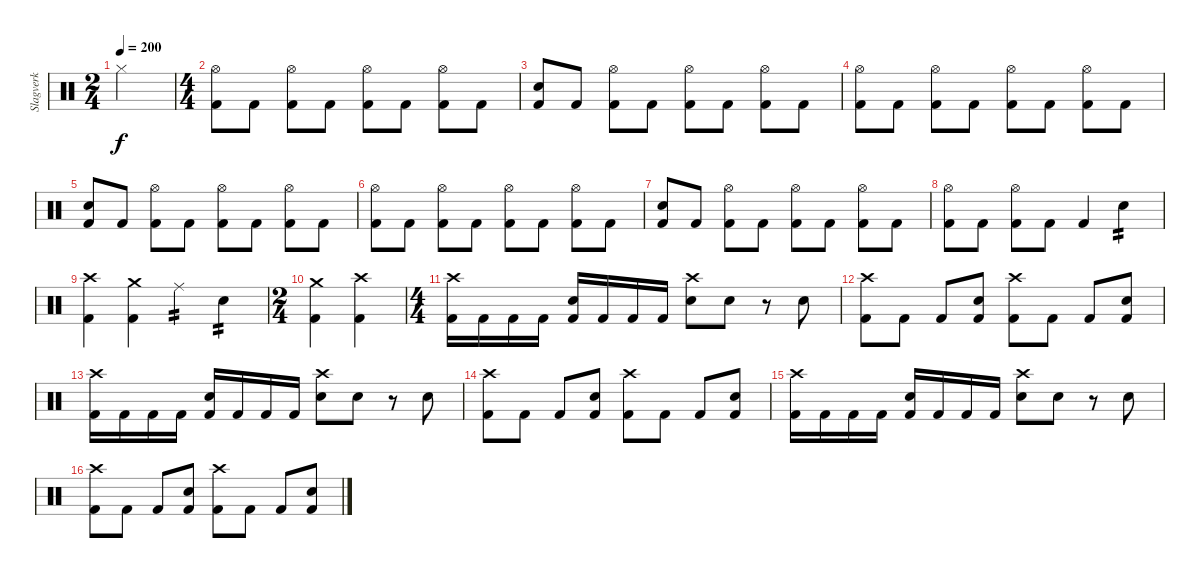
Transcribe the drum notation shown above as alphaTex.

\track ("Slagverk" "Slagverk") {instrument percussion}
\staff {score}
\articulation defaults
\ts (2 4)
\tempo 200
\clef neutral
\ks c "Hi-Hat (closed)".2{dy f}
|
\ts (4 4)
("Kick (hit) 2" "Hi-Hat (open)").8 "Kick (hit) 2".8 ("Kick (hit) 2" "Hi-Hat (open)").8 "Kick (hit) 2".8 ("Kick (hit) 2" "Hi-Hat (open)").8 "Kick (hit) 2".8 ("Kick (hit) 2" "Hi-Hat (open)").8 "Kick (hit) 2".8 |
("Kick (hit) 2" "Snare (hit) 2").8 "Kick (hit) 2".8 ("Kick (hit) 2" "Hi-Hat (open)").8 "Kick (hit) 2".8 ("Kick (hit) 2" "Hi-Hat (open)").8 "Kick (hit) 2".8 ("Kick (hit) 2" "Hi-Hat (open)").8 "Kick (hit) 2".8 |
("Kick (hit) 2" "Hi-Hat (open)").8 "Kick (hit) 2".8 ("Kick (hit) 2" "Hi-Hat (open)").8 "Kick (hit) 2".8 ("Kick (hit) 2" "Hi-Hat (open)").8 "Kick (hit) 2".8 ("Kick (hit) 2" "Hi-Hat (open)").8 "Kick (hit) 2".8 |
("Kick (hit) 2" "Snare (hit) 2").8 "Kick (hit) 2".8 ("Kick (hit) 2" "Hi-Hat (open)").8 "Kick (hit) 2".8 ("Kick (hit) 2" "Hi-Hat (open)").8 "Kick (hit) 2".8 ("Kick (hit) 2" "Hi-Hat (open)").8 "Kick (hit) 2".8 |
("Kick (hit) 2" "Hi-Hat (open)").8 "Kick (hit) 2".8 ("Kick (hit) 2" "Hi-Hat (open)").8 "Kick (hit) 2".8 ("Kick (hit) 2" "Hi-Hat (open)").8 "Kick (hit) 2".8 ("Kick (hit) 2" "Hi-Hat (open)").8 "Kick (hit) 2".8 |
("Kick (hit) 2" "Snare (hit) 2").8 "Kick (hit) 2".8 ("Kick (hit) 2" "Hi-Hat (open)").8 "Kick (hit) 2".8 ("Kick (hit) 2" "Hi-Hat (open)").8 "Kick (hit) 2".8 ("Kick (hit) 2" "Hi-Hat (open)").8 "Kick (hit) 2".8 |
("Kick (hit) 2" "Hi-Hat (open)").8 "Kick (hit) 2".8 ("Kick (hit) 2" "Hi-Hat (open)").8 "Kick (hit) 2".8 "Kick (hit) 2".4 "Snare (hit) 2".4{tp 2} |
("Kick (hit) 2" "Crash high (hit)").4 ("Kick (hit) 2" "Crash medium (hit)").4 "Ride (middle)".4{tp 2} "Snare (hit) 2".4{tp 2} |
\ts (2 4)
("Kick (hit) 2" "Crash medium (hit)").4 ("Kick (hit) 2" "Crash high (hit)").4 |
\ts (4 4)
("Crash high (hit)" "Kick (hit) 2").16 "Kick (hit) 2".16 "Kick (hit) 2".16 "Kick (hit) 2".16 ("Snare (hit) 2" "Kick (hit) 2").16 "Kick (hit) 2".16 "Kick (hit) 2".16 "Kick (hit) 2".16 ("Snare (hit) 2" "Crash high (hit)").8 "Snare (hit) 2".8 r.8 "Snare (hit) 2".8 |
("Kick (hit) 2" "Crash high (hit)").8 "Kick (hit) 2".8 "Kick (hit) 2".8 ("Kick (hit) 2" "Snare (hit) 2").8 ("Kick (hit) 2" "Crash high (hit)").8 "Kick (hit) 2".8 "Kick (hit) 2".8 ("Kick (hit) 2" "Snare (hit) 2").8 |
("Crash high (hit)" "Kick (hit) 2").16 "Kick (hit) 2".16 "Kick (hit) 2".16 "Kick (hit) 2".16 ("Snare (hit) 2" "Kick (hit) 2").16 "Kick (hit) 2".16 "Kick (hit) 2".16 "Kick (hit) 2".16 ("Snare (hit) 2" "Crash high (hit)").8 "Snare (hit) 2".8 r.8 "Snare (hit) 2".8 |
("Kick (hit) 2" "Crash high (hit)").8 "Kick (hit) 2".8 "Kick (hit) 2".8 ("Kick (hit) 2" "Snare (hit) 2").8 ("Kick (hit) 2" "Crash high (hit)").8 "Kick (hit) 2".8 "Kick (hit) 2".8 ("Kick (hit) 2" "Snare (hit) 2").8 |
("Crash high (hit)" "Kick (hit) 2").16 "Kick (hit) 2".16 "Kick (hit) 2".16 "Kick (hit) 2".16 ("Snare (hit) 2" "Kick (hit) 2").16 "Kick (hit) 2".16 "Kick (hit) 2".16 "Kick (hit) 2".16 ("Snare (hit) 2" "Crash high (hit)").8 "Snare (hit) 2".8 r.8 "Snare (hit) 2".8 |
("Kick (hit) 2" "Crash high (hit)").8 "Kick (hit) 2".8 "Kick (hit) 2".8 ("Kick (hit) 2" "Snare (hit) 2").8 ("Kick (hit) 2" "Crash high (hit)").8 "Kick (hit) 2".8 "Kick (hit) 2".8 ("Kick (hit) 2" "Snare (hit) 2").8
